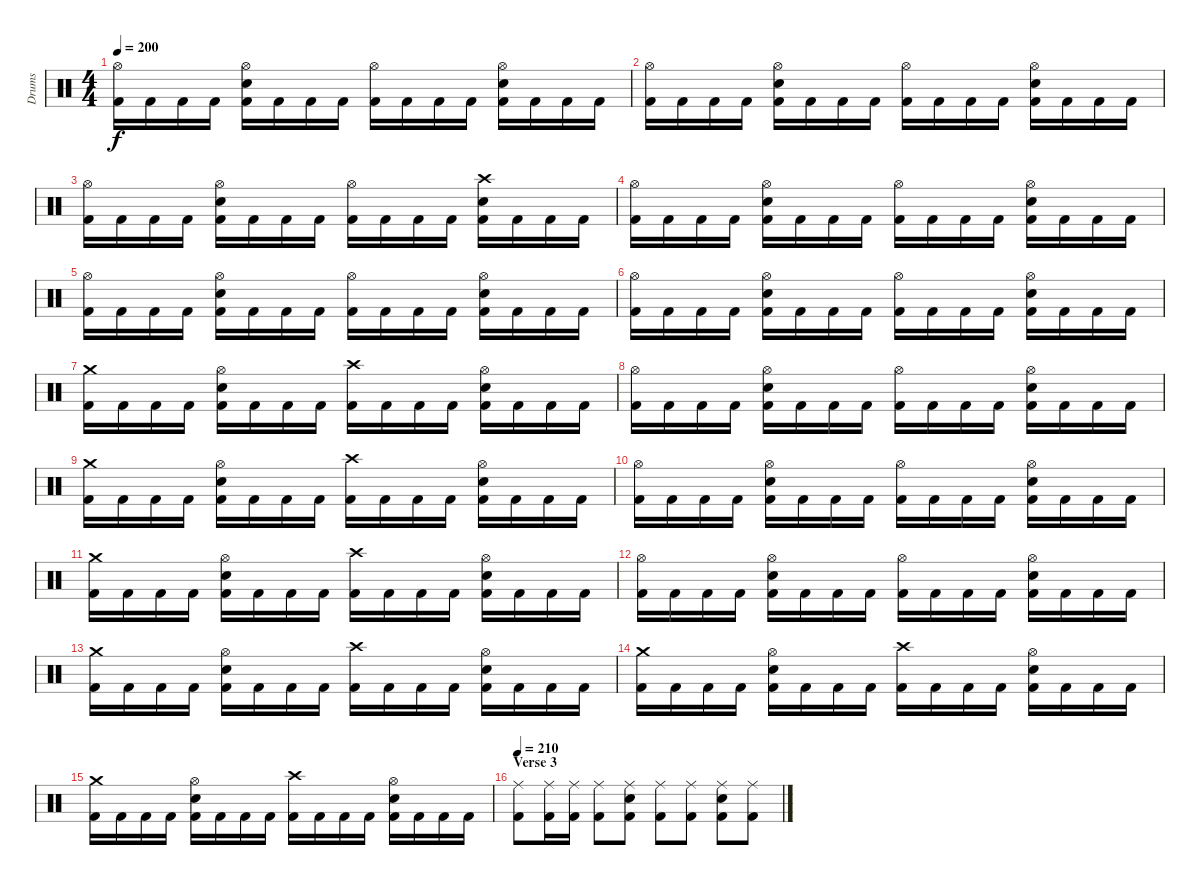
\track ("Drums" "Drums") {instrument percussion}
\staff {score}
\articulation defaults
\ts (4 4)
\tempo 200
\clef neutral
\ks c
("Hi-Hat (open)" "Kick (hit) 2").16{dy f} "Kick (hit) 2".16 "Kick (hit) 2".16 "Kick (hit) 2".16 ("Hi-Hat (open)" "Snare (hit) 2" "Kick (hit) 2").16 "Kick (hit) 2".16 "Kick (hit) 2".16 "Kick (hit) 2".16 ("Hi-Hat (open)" "Kick (hit) 2").16 "Kick (hit) 2".16 "Kick (hit) 2".16 "Kick (hit) 2".16 ("Hi-Hat (open)" "Snare (hit) 2" "Kick (hit) 2").16 "Kick (hit) 2".16 "Kick (hit) 2".16 "Kick (hit) 2".16 |
("Hi-Hat (open)" "Kick (hit) 2").16 "Kick (hit) 2".16 "Kick (hit) 2".16 "Kick (hit) 2".16 ("Hi-Hat (open)" "Snare (hit) 2" "Kick (hit) 2").16 "Kick (hit) 2".16 "Kick (hit) 2".16 "Kick (hit) 2".16 ("Hi-Hat (open)" "Kick (hit) 2").16 "Kick (hit) 2".16 "Kick (hit) 2".16 "Kick (hit) 2".16 ("Hi-Hat (open)" "Snare (hit) 2" "Kick (hit) 2").16 "Kick (hit) 2".16 "Kick (hit) 2".16 "Kick (hit) 2".16 |
("Hi-Hat (open)" "Kick (hit) 2").16 "Kick (hit) 2".16 "Kick (hit) 2".16 "Kick (hit) 2".16 ("Hi-Hat (open)" "Snare (hit) 2" "Kick (hit) 2").16 "Kick (hit) 2".16 "Kick (hit) 2".16 "Kick (hit) 2".16 ("Hi-Hat (open)" "Kick (hit) 2").16 "Kick (hit) 2".16 "Kick (hit) 2".16 "Kick (hit) 2".16 ("Crash high (hit)" "Snare (hit) 2" "Kick (hit) 2").16 "Kick (hit) 2".16 "Kick (hit) 2".16 "Kick (hit) 2".16 |
("Hi-Hat (open)" "Kick (hit) 2").16 "Kick (hit) 2".16 "Kick (hit) 2".16 "Kick (hit) 2".16 ("Hi-Hat (open)" "Snare (hit) 2" "Kick (hit) 2").16 "Kick (hit) 2".16 "Kick (hit) 2".16 "Kick (hit) 2".16 ("Hi-Hat (open)" "Kick (hit) 2").16 "Kick (hit) 2".16 "Kick (hit) 2".16 "Kick (hit) 2".16 ("Hi-Hat (open)" "Snare (hit) 2" "Kick (hit) 2").16 "Kick (hit) 2".16 "Kick (hit) 2".16 "Kick (hit) 2".16 |
("Hi-Hat (open)" "Kick (hit) 2").16 "Kick (hit) 2".16 "Kick (hit) 2".16 "Kick (hit) 2".16 ("Hi-Hat (open)" "Snare (hit) 2" "Kick (hit) 2").16 "Kick (hit) 2".16 "Kick (hit) 2".16 "Kick (hit) 2".16 ("Hi-Hat (open)" "Kick (hit) 2").16 "Kick (hit) 2".16 "Kick (hit) 2".16 "Kick (hit) 2".16 ("Hi-Hat (open)" "Snare (hit) 2" "Kick (hit) 2").16 "Kick (hit) 2".16 "Kick (hit) 2".16 "Kick (hit) 2".16 |
("Hi-Hat (open)" "Kick (hit) 2").16 "Kick (hit) 2".16 "Kick (hit) 2".16 "Kick (hit) 2".16 ("Hi-Hat (open)" "Snare (hit) 2" "Kick (hit) 2").16 "Kick (hit) 2".16 "Kick (hit) 2".16 "Kick (hit) 2".16 ("Hi-Hat (open)" "Kick (hit) 2").16 "Kick (hit) 2".16 "Kick (hit) 2".16 "Kick (hit) 2".16 ("Hi-Hat (open)" "Snare (hit) 2" "Kick (hit) 2").16 "Kick (hit) 2".16 "Kick (hit) 2".16 "Kick (hit) 2".16 |
("Crash medium (hit)" "Kick (hit) 2").16 "Kick (hit) 2".16 "Kick (hit) 2".16 "Kick (hit) 2".16 ("Hi-Hat (open)" "Snare (hit) 2" "Kick (hit) 2").16 "Kick (hit) 2".16 "Kick (hit) 2".16 "Kick (hit) 2".16 ("Crash high (hit)" "Kick (hit) 2").16 "Kick (hit) 2".16 "Kick (hit) 2".16 "Kick (hit) 2".16 ("Hi-Hat (open)" "Snare (hit) 2" "Kick (hit) 2").16 "Kick (hit) 2".16 "Kick (hit) 2".16 "Kick (hit) 2".16 |
("Hi-Hat (open)" "Kick (hit) 2").16 "Kick (hit) 2".16 "Kick (hit) 2".16 "Kick (hit) 2".16 ("Hi-Hat (open)" "Snare (hit) 2" "Kick (hit) 2").16 "Kick (hit) 2".16 "Kick (hit) 2".16 "Kick (hit) 2".16 ("Hi-Hat (open)" "Kick (hit) 2").16 "Kick (hit) 2".16 "Kick (hit) 2".16 "Kick (hit) 2".16 ("Hi-Hat (open)" "Snare (hit) 2" "Kick (hit) 2").16 "Kick (hit) 2".16 "Kick (hit) 2".16 "Kick (hit) 2".16 |
("Crash medium (hit)" "Kick (hit) 2").16 "Kick (hit) 2".16 "Kick (hit) 2".16 "Kick (hit) 2".16 ("Hi-Hat (open)" "Snare (hit) 2" "Kick (hit) 2").16 "Kick (hit) 2".16 "Kick (hit) 2".16 "Kick (hit) 2".16 ("Crash high (hit)" "Kick (hit) 2").16 "Kick (hit) 2".16 "Kick (hit) 2".16 "Kick (hit) 2".16 ("Hi-Hat (open)" "Snare (hit) 2" "Kick (hit) 2").16 "Kick (hit) 2".16 "Kick (hit) 2".16 "Kick (hit) 2".16 |
("Hi-Hat (open)" "Kick (hit) 2").16 "Kick (hit) 2".16 "Kick (hit) 2".16 "Kick (hit) 2".16 ("Hi-Hat (open)" "Snare (hit) 2" "Kick (hit) 2").16 "Kick (hit) 2".16 "Kick (hit) 2".16 "Kick (hit) 2".16 ("Hi-Hat (open)" "Kick (hit) 2").16 "Kick (hit) 2".16 "Kick (hit) 2".16 "Kick (hit) 2".16 ("Hi-Hat (open)" "Snare (hit) 2" "Kick (hit) 2").16 "Kick (hit) 2".16 "Kick (hit) 2".16 "Kick (hit) 2".16 |
("Crash medium (hit)" "Kick (hit) 2").16 "Kick (hit) 2".16 "Kick (hit) 2".16 "Kick (hit) 2".16 ("Hi-Hat (open)" "Snare (hit) 2" "Kick (hit) 2").16 "Kick (hit) 2".16 "Kick (hit) 2".16 "Kick (hit) 2".16 ("Crash high (hit)" "Kick (hit) 2").16 "Kick (hit) 2".16 "Kick (hit) 2".16 "Kick (hit) 2".16 ("Hi-Hat (open)" "Snare (hit) 2" "Kick (hit) 2").16 "Kick (hit) 2".16 "Kick (hit) 2".16 "Kick (hit) 2".16 |
("Hi-Hat (open)" "Kick (hit) 2").16 "Kick (hit) 2".16 "Kick (hit) 2".16 "Kick (hit) 2".16 ("Hi-Hat (open)" "Snare (hit) 2" "Kick (hit) 2").16 "Kick (hit) 2".16 "Kick (hit) 2".16 "Kick (hit) 2".16 ("Hi-Hat (open)" "Kick (hit) 2").16 "Kick (hit) 2".16 "Kick (hit) 2".16 "Kick (hit) 2".16 ("Hi-Hat (open)" "Snare (hit) 2" "Kick (hit) 2").16 "Kick (hit) 2".16 "Kick (hit) 2".16 "Kick (hit) 2".16 |
("Crash medium (hit)" "Kick (hit) 2").16 "Kick (hit) 2".16 "Kick (hit) 2".16 "Kick (hit) 2".16 ("Hi-Hat (open)" "Snare (hit) 2" "Kick (hit) 2").16 "Kick (hit) 2".16 "Kick (hit) 2".16 "Kick (hit) 2".16 ("Crash high (hit)" "Kick (hit) 2").16 "Kick (hit) 2".16 "Kick (hit) 2".16 "Kick (hit) 2".16 ("Hi-Hat (open)" "Snare (hit) 2" "Kick (hit) 2").16 "Kick (hit) 2".16 "Kick (hit) 2".16 "Kick (hit) 2".16 |
("Crash medium (hit)" "Kick (hit) 2").16 "Kick (hit) 2".16 "Kick (hit) 2".16 "Kick (hit) 2".16 ("Hi-Hat (open)" "Snare (hit) 2" "Kick (hit) 2").16 "Kick (hit) 2".16 "Kick (hit) 2".16 "Kick (hit) 2".16 ("Crash high (hit)" "Kick (hit) 2").16 "Kick (hit) 2".16 "Kick (hit) 2".16 "Kick (hit) 2".16 ("Hi-Hat (open)" "Snare (hit) 2" "Kick (hit) 2").16 "Kick (hit) 2".16 "Kick (hit) 2".16 "Kick (hit) 2".16 |
("Crash medium (hit)" "Kick (hit) 2").16 "Kick (hit) 2".16 "Kick (hit) 2".16 "Kick (hit) 2".16 ("Hi-Hat (open)" "Snare (hit) 2" "Kick (hit) 2").16 "Kick (hit) 2".16 "Kick (hit) 2".16 "Kick (hit) 2".16 ("Crash high (hit)" "Kick (hit) 2").16 "Kick (hit) 2".16 "Kick (hit) 2".16 "Kick (hit) 2".16 ("Hi-Hat (open)" "Snare (hit) 2" "Kick (hit) 2").16 "Kick (hit) 2".16 "Kick (hit) 2".16 "Kick (hit) 2".16 |
\section ("" "Verse 3")
\tempo 210
("Ride (middle)" "Kick (hit) 2").8 ("Ride (middle)" "Kick (hit) 2").16 ("Ride (middle)" "Kick (hit) 2").16 ("Ride (middle)" "Kick (hit) 2").8 ("Ride (middle)" "Snare (hit) 2" "Kick (hit) 2").8 ("Ride (middle)" "Kick (hit) 2").8 ("Ride (middle)" "Kick (hit) 2").8 ("Ride (middle)" "Snare (hit) 2" "Kick (hit) 2").8 ("Ride (middle)" "Kick (hit) 2").8
